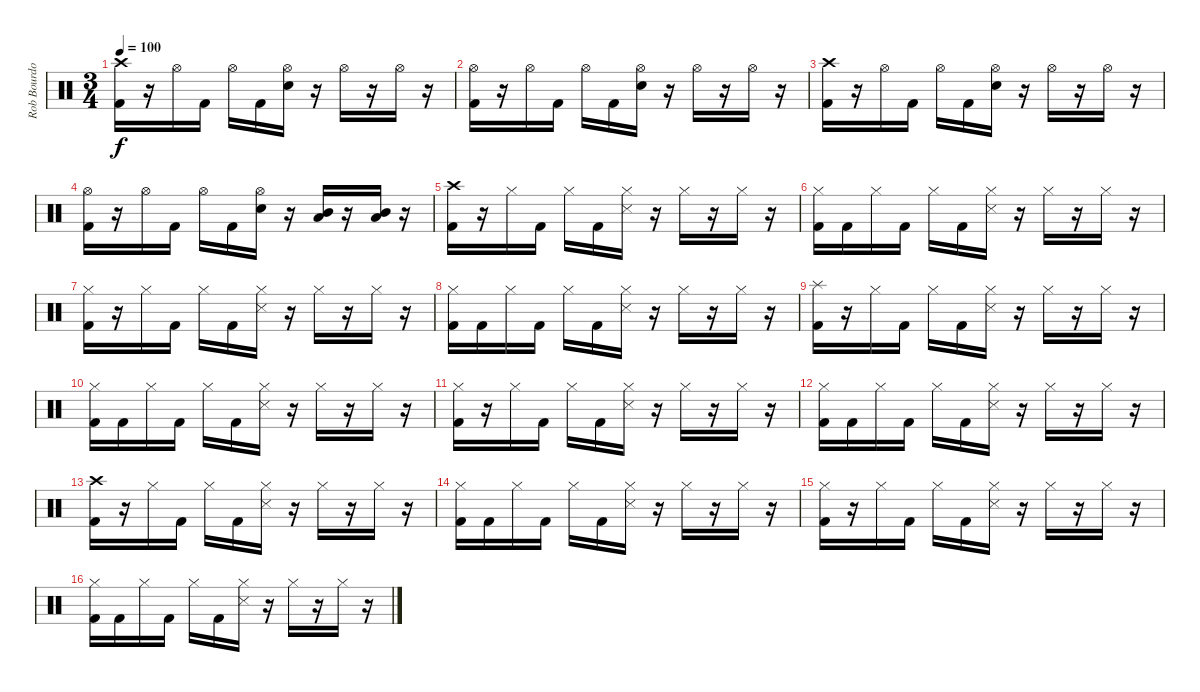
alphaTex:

\track ("Rob Bourdon (Drums)" "Rob Bourdo") {instrument percussion}
\staff {score}
\articulation defaults
\ts (3 4)
\tempo 100
\clef neutral
\ks c
("Crash high (hit)" "Kick (hit) 2").16{dy f} r.16 "Hi-Hat (open)".16 "Kick (hit) 2".16 "Hi-Hat (open)".16 "Kick (hit) 2".16 ("Hi-Hat (open)" "Electric Snare (hit)").16 r.16 "Hi-Hat (open)".16 r.16 "Hi-Hat (open)".16 r.16 |
("Hi-Hat (open)" "Kick (hit) 2").16 r.16 "Hi-Hat (open)".16 "Kick (hit) 2".16 "Hi-Hat (open)".16 "Kick (hit) 2".16 ("Hi-Hat (open)" "Electric Snare (hit)").16 r.16 "Hi-Hat (open)".16 r.16 "Hi-Hat (open)".16 r.16 |
("Crash high (hit)" "Kick (hit) 2").16 r.16 "Hi-Hat (open)".16 "Kick (hit) 2".16 "Hi-Hat (open)".16 "Kick (hit) 2".16 ("Hi-Hat (open)" "Electric Snare (hit)").16 r.16 "Hi-Hat (open)".16 r.16 "Hi-Hat (open)".16 r.16 |
("Hi-Hat (open)" "Kick (hit) 2").16 r.16 "Hi-Hat (open)".16 "Kick (hit) 2".16 "Hi-Hat (open)".16 "Kick (hit) 2".16 ("Hi-Hat (open)" "Electric Snare (hit)").16 r.16 ("Mid Tom (hit)" "Low Tom (hit)").16 r.16 ("Mid Tom (hit)" "Low Tom (hit)").16 r.16 |
("Crash high (hit)" "Kick (hit) 2").16 r.16 "Hi-Hat (closed)".16 "Kick (hit) 2".16 "Hi-Hat (closed)".16 "Kick (hit) 2".16 ("Hi-Hat (closed)" "Snare (side stick) 3").16 r.16 "Hi-Hat (closed)".16 r.16 "Hi-Hat (closed)".16 r.16 |
("Hi-Hat (closed)" "Kick (hit) 2").16 "Kick (hit) 2".16 "Hi-Hat (closed)".16 "Kick (hit) 2".16 "Hi-Hat (closed)".16 "Kick (hit) 2".16 ("Hi-Hat (closed)" "Snare (side stick) 3").16 r.16 "Hi-Hat (closed)".16 r.16 "Hi-Hat (closed)".16 r.16 |
("Hi-Hat (closed)" "Kick (hit) 2").16 r.16 "Hi-Hat (closed)".16 "Kick (hit) 2".16 "Hi-Hat (closed)".16 "Kick (hit) 2".16 ("Hi-Hat (closed)" "Snare (side stick) 3").16 r.16 "Hi-Hat (closed)".16 r.16 "Hi-Hat (closed)".16 r.16 |
("Hi-Hat (closed)" "Kick (hit) 2").16 "Kick (hit) 2".16 "Hi-Hat (closed)".16 "Kick (hit) 2".16 "Hi-Hat (closed)".16 "Kick (hit) 2".16 ("Hi-Hat (closed)" "Snare (side stick) 3").16 r.16 "Hi-Hat (closed)".16 r.16 "Hi-Hat (closed)".16 r.16 |
("Splash (hit)" "Kick (hit) 2").16 r.16 "Hi-Hat (closed)".16 "Kick (hit) 2".16 "Hi-Hat (closed)".16 "Kick (hit) 2".16 ("Hi-Hat (closed)" "Snare (side stick) 3").16 r.16 "Hi-Hat (closed)".16 r.16 "Hi-Hat (closed)".16 r.16 |
("Hi-Hat (closed)" "Kick (hit) 2").16 "Kick (hit) 2".16 "Hi-Hat (closed)".16 "Kick (hit) 2".16 "Hi-Hat (closed)".16 "Kick (hit) 2".16 ("Hi-Hat (closed)" "Snare (side stick) 3").16 r.16 "Hi-Hat (closed)".16 r.16 "Hi-Hat (closed)".16 r.16 |
("Hi-Hat (closed)" "Kick (hit) 2").16 r.16 "Hi-Hat (closed)".16 "Kick (hit) 2".16 "Hi-Hat (closed)".16 "Kick (hit) 2".16 ("Hi-Hat (closed)" "Snare (side stick) 3").16 r.16 "Hi-Hat (closed)".16 r.16 "Hi-Hat (closed)".16 r.16 |
("Hi-Hat (closed)" "Kick (hit) 2").16 "Kick (hit) 2".16 "Hi-Hat (closed)".16 "Kick (hit) 2".16 "Hi-Hat (closed)".16 "Kick (hit) 2".16 ("Hi-Hat (closed)" "Snare (side stick) 3").16 r.16 "Hi-Hat (closed)".16 r.16 "Hi-Hat (closed)".16 r.16 |
("Crash high (hit)" "Kick (hit) 2").16 r.16 "Hi-Hat (closed)".16 "Kick (hit) 2".16 "Hi-Hat (closed)".16 "Kick (hit) 2".16 ("Hi-Hat (closed)" "Snare (side stick) 3").16 r.16 "Hi-Hat (closed)".16 r.16 "Hi-Hat (closed)".16 r.16 |
("Hi-Hat (closed)" "Kick (hit) 2").16 "Kick (hit) 2".16 "Hi-Hat (closed)".16 "Kick (hit) 2".16 "Hi-Hat (closed)".16 "Kick (hit) 2".16 ("Hi-Hat (closed)" "Snare (side stick) 3").16 r.16 "Hi-Hat (closed)".16 r.16 "Hi-Hat (closed)".16 r.16 |
("Hi-Hat (closed)" "Kick (hit) 2").16 r.16 "Hi-Hat (closed)".16 "Kick (hit) 2".16 "Hi-Hat (closed)".16 "Kick (hit) 2".16 ("Hi-Hat (closed)" "Snare (side stick) 3").16 r.16 "Hi-Hat (closed)".16 r.16 "Hi-Hat (closed)".16 r.16 |
("Hi-Hat (closed)" "Kick (hit) 2").16 "Kick (hit) 2".16 "Hi-Hat (closed)".16 "Kick (hit) 2".16 "Hi-Hat (closed)".16 "Kick (hit) 2".16 ("Hi-Hat (closed)" "Snare (side stick) 3").16 r.16 "Hi-Hat (closed)".16 r.16 "Hi-Hat (closed)".16 r.16
